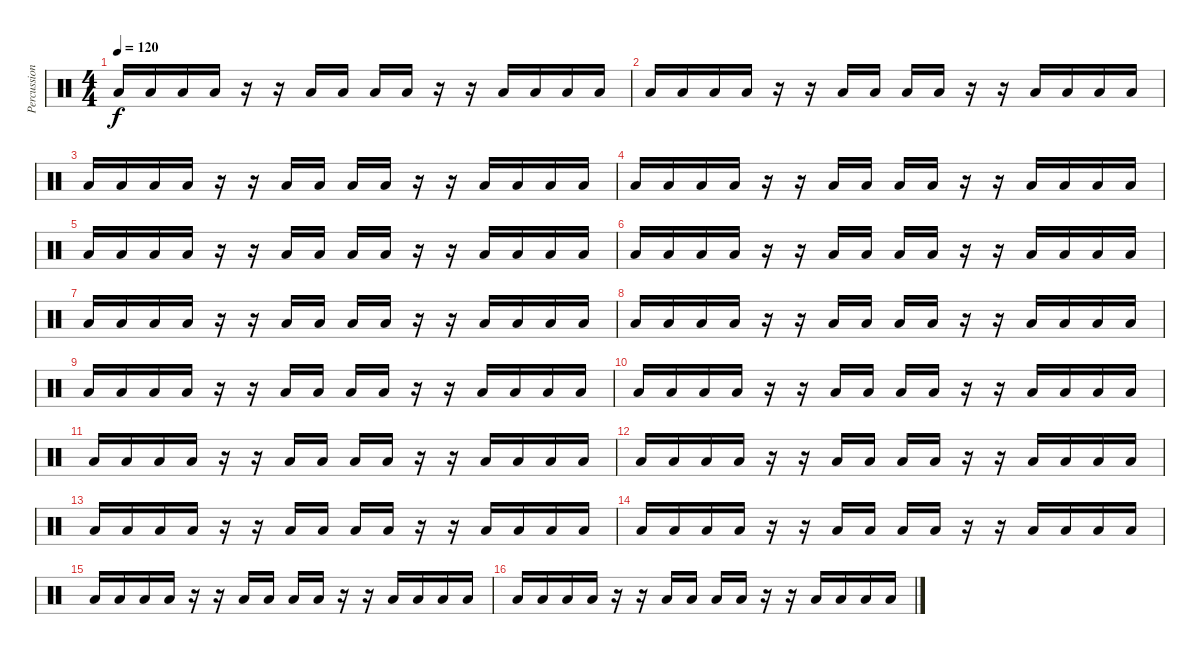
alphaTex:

\track ("Percussions" "Percussion") {instrument percussion}
\staff {score}
\articulation defaults
\ts (4 4)
\tempo 120
\clef neutral
\ks c "Low Floor Tom (hit)".16{dy f} "Low Floor Tom (hit)".16 "Low Floor Tom (hit)".16 "Low Floor Tom (hit)".16
r.16 r.16 "Low Floor Tom (hit)".16 "Low Floor Tom (hit)".16 "Low Floor Tom (hit)".16 "Low Floor Tom (hit)".16 r.16 r.16 "Low Floor Tom (hit)".16 "Low Floor Tom (hit)".16 "Low Floor Tom (hit)".16 "Low Floor Tom (hit)".16 |
"Low Floor Tom (hit)".16 "Low Floor Tom (hit)".16 "Low Floor Tom (hit)".16 "Low Floor Tom (hit)".16 r.16 r.16 "Low Floor Tom (hit)".16 "Low Floor Tom (hit)".16 "Low Floor Tom (hit)".16 "Low Floor Tom (hit)".16 r.16 r.16 "Low Floor Tom (hit)".16 "Low Floor Tom (hit)".16 "Low Floor Tom (hit)".16 "Low Floor Tom (hit)".16 |
"Low Floor Tom (hit)".16 "Low Floor Tom (hit)".16 "Low Floor Tom (hit)".16 "Low Floor Tom (hit)".16 r.16 r.16 "Low Floor Tom (hit)".16 "Low Floor Tom (hit)".16 "Low Floor Tom (hit)".16 "Low Floor Tom (hit)".16 r.16 r.16 "Low Floor Tom (hit)".16 "Low Floor Tom (hit)".16 "Low Floor Tom (hit)".16 "Low Floor Tom (hit)".16 |
"Low Floor Tom (hit)".16 "Low Floor Tom (hit)".16 "Low Floor Tom (hit)".16 "Low Floor Tom (hit)".16 r.16 r.16 "Low Floor Tom (hit)".16 "Low Floor Tom (hit)".16 "Low Floor Tom (hit)".16 "Low Floor Tom (hit)".16 r.16 r.16 "Low Floor Tom (hit)".16 "Low Floor Tom (hit)".16 "Low Floor Tom (hit)".16 "Low Floor Tom (hit)".16 |
"Low Floor Tom (hit)".16 "Low Floor Tom (hit)".16 "Low Floor Tom (hit)".16 "Low Floor Tom (hit)".16 r.16 r.16 "Low Floor Tom (hit)".16 "Low Floor Tom (hit)".16 "Low Floor Tom (hit)".16 "Low Floor Tom (hit)".16 r.16 r.16 "Low Floor Tom (hit)".16 "Low Floor Tom (hit)".16 "Low Floor Tom (hit)".16 "Low Floor Tom (hit)".16 |
"Low Floor Tom (hit)".16 "Low Floor Tom (hit)".16 "Low Floor Tom (hit)".16 "Low Floor Tom (hit)".16 r.16 r.16 "Low Floor Tom (hit)".16 "Low Floor Tom (hit)".16 "Low Floor Tom (hit)".16 "Low Floor Tom (hit)".16 r.16 r.16 "Low Floor Tom (hit)".16 "Low Floor Tom (hit)".16 "Low Floor Tom (hit)".16 "Low Floor Tom (hit)".16 |
"Low Floor Tom (hit)".16 "Low Floor Tom (hit)".16 "Low Floor Tom (hit)".16 "Low Floor Tom (hit)".16 r.16 r.16 "Low Floor Tom (hit)".16 "Low Floor Tom (hit)".16 "Low Floor Tom (hit)".16 "Low Floor Tom (hit)".16 r.16 r.16 "Low Floor Tom (hit)".16 "Low Floor Tom (hit)".16 "Low Floor Tom (hit)".16 "Low Floor Tom (hit)".16 |
"Low Floor Tom (hit)".16 "Low Floor Tom (hit)".16 "Low Floor Tom (hit)".16 "Low Floor Tom (hit)".16 r.16 r.16 "Low Floor Tom (hit)".16 "Low Floor Tom (hit)".16 "Low Floor Tom (hit)".16 "Low Floor Tom (hit)".16 r.16 r.16 "Low Floor Tom (hit)".16 "Low Floor Tom (hit)".16 "Low Floor Tom (hit)".16 "Low Floor Tom (hit)".16 |
"Low Floor Tom (hit)".16 "Low Floor Tom (hit)".16 "Low Floor Tom (hit)".16 "Low Floor Tom (hit)".16 r.16 r.16 "Low Floor Tom (hit)".16 "Low Floor Tom (hit)".16 "Low Floor Tom (hit)".16 "Low Floor Tom (hit)".16 r.16 r.16 "Low Floor Tom (hit)".16 "Low Floor Tom (hit)".16 "Low Floor Tom (hit)".16 "Low Floor Tom (hit)".16 |
"Low Floor Tom (hit)".16 "Low Floor Tom (hit)".16 "Low Floor Tom (hit)".16 "Low Floor Tom (hit)".16 r.16 r.16 "Low Floor Tom (hit)".16 "Low Floor Tom (hit)".16 "Low Floor Tom (hit)".16 "Low Floor Tom (hit)".16 r.16 r.16 "Low Floor Tom (hit)".16 "Low Floor Tom (hit)".16 "Low Floor Tom (hit)".16 "Low Floor Tom (hit)".16 |
"Low Floor Tom (hit)".16 "Low Floor Tom (hit)".16 "Low Floor Tom (hit)".16 "Low Floor Tom (hit)".16 r.16 r.16 "Low Floor Tom (hit)".16 "Low Floor Tom (hit)".16 "Low Floor Tom (hit)".16 "Low Floor Tom (hit)".16 r.16 r.16 "Low Floor Tom (hit)".16 "Low Floor Tom (hit)".16 "Low Floor Tom (hit)".16 "Low Floor Tom (hit)".16 |
"Low Floor Tom (hit)".16 "Low Floor Tom (hit)".16 "Low Floor Tom (hit)".16 "Low Floor Tom (hit)".16 r.16 r.16 "Low Floor Tom (hit)".16 "Low Floor Tom (hit)".16 "Low Floor Tom (hit)".16 "Low Floor Tom (hit)".16 r.16 r.16 "Low Floor Tom (hit)".16 "Low Floor Tom (hit)".16 "Low Floor Tom (hit)".16 "Low Floor Tom (hit)".16 |
"Low Floor Tom (hit)".16 "Low Floor Tom (hit)".16 "Low Floor Tom (hit)".16 "Low Floor Tom (hit)".16 r.16 r.16 "Low Floor Tom (hit)".16 "Low Floor Tom (hit)".16 "Low Floor Tom (hit)".16 "Low Floor Tom (hit)".16 r.16 r.16 "Low Floor Tom (hit)".16 "Low Floor Tom (hit)".16 "Low Floor Tom (hit)".16 "Low Floor Tom (hit)".16 |
"Low Floor Tom (hit)".16 "Low Floor Tom (hit)".16 "Low Floor Tom (hit)".16 "Low Floor Tom (hit)".16 r.16 r.16 "Low Floor Tom (hit)".16 "Low Floor Tom (hit)".16 "Low Floor Tom (hit)".16 "Low Floor Tom (hit)".16 r.16 r.16 "Low Floor Tom (hit)".16 "Low Floor Tom (hit)".16 "Low Floor Tom (hit)".16 "Low Floor Tom (hit)".16 |
"Low Floor Tom (hit)".16 "Low Floor Tom (hit)".16 "Low Floor Tom (hit)".16 "Low Floor Tom (hit)".16 r.16 r.16 "Low Floor Tom (hit)".16 "Low Floor Tom (hit)".16 "Low Floor Tom (hit)".16 "Low Floor Tom (hit)".16 r.16 r.16 "Low Floor Tom (hit)".16 "Low Floor Tom (hit)".16 "Low Floor Tom (hit)".16 "Low Floor Tom (hit)".16 |
"Low Floor Tom (hit)".16 "Low Floor Tom (hit)".16 "Low Floor Tom (hit)".16 "Low Floor Tom (hit)".16 r.16 r.16 "Low Floor Tom (hit)".16 "Low Floor Tom (hit)".16 "Low Floor Tom (hit)".16 "Low Floor Tom (hit)".16 r.16 r.16 "Low Floor Tom (hit)".16 "Low Floor Tom (hit)".16 "Low Floor Tom (hit)".16 "Low Floor Tom (hit)".16
